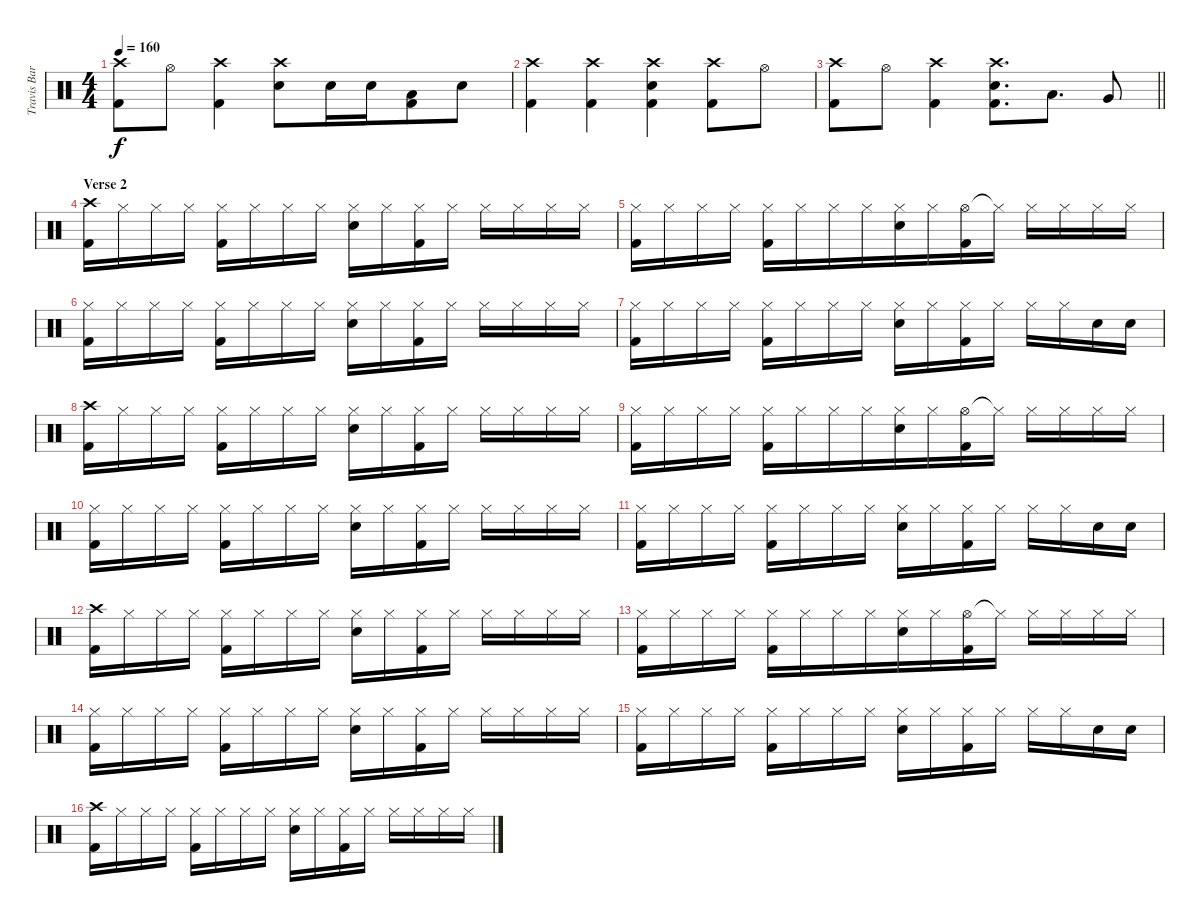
\track ("Travis Barker - Drums" "Travis Bar") {instrument percussion}
\staff {score}
\articulation defaults
\ts (4 4)
\tempo 160
\clef neutral
\ks c
("Crash high (hit)" "Kick (hit) 2").8{dy f} "Hi-Hat (open)".8{beam merge} ("Crash high (hit)" "Kick (hit) 2").4{beam merge} ("Crash high (hit)" "Electric Snare (hit)").8 "Electric Snare (hit)".16 "Electric Snare (hit)".16{beam merge} ("Low Tom (hit)" "Kick (hit) 2").8{beam merge} "Electric Snare (hit)".8 |
("Crash high (hit)" "Kick (hit) 2").4 ("Crash high (hit)" "Kick (hit) 2").4 ("Crash high (hit)" "Electric Snare (hit)" "Kick (hit) 2").4{beam merge} ("Crash high (hit)" "Kick (hit) 2").8{beam merge} "Hi-Hat (open)".8 |
\barLineRight lightlight
("Crash high (hit)" "Kick (hit) 2").8 "Hi-Hat (open)".8{beam merge} ("Crash high (hit)" "Kick (hit) 2").4{beam merge} ("Crash high (hit)" "Electric Snare (hit)" "Kick (hit) 2").8{d beam merge} "Low Tom (hit)".8{d} "Very Low Tom (hit)".8 |
\section ("" "Verse 2")
("Crash high (hit)" "Kick (hit) 2").16 "Hi-Hat (closed)".16{beam merge} "Hi-Hat (closed)".16 "Hi-Hat (closed)".16 ("Hi-Hat (closed)" "Kick (hit) 2").16{beam merge} "Hi-Hat (closed)".16 "Hi-Hat (closed)".16 "Hi-Hat (closed)".16 ("Hi-Hat (closed)" "Electric Snare (hit)").16 "Hi-Hat (closed)".16 ("Hi-Hat (closed)" "Kick (hit) 2").16 "Hi-Hat (closed)".16 "Hi-Hat (closed)".16{beam merge} "Hi-Hat (closed)".16 "Hi-Hat (closed)".16 "Hi-Hat (closed)".16 |
("Hi-Hat (closed)" "Kick (hit) 2").16 "Hi-Hat (closed)".16{beam merge} "Hi-Hat (closed)".16 "Hi-Hat (closed)".16 ("Hi-Hat (closed)" "Kick (hit) 2").16 "Hi-Hat (closed)".16{beam merge} "Hi-Hat (closed)".16 "Hi-Hat (closed)".16{beam merge} ("Hi-Hat (closed)" "Electric Snare (hit)").16{beam merge} "Hi-Hat (closed)".16 ("Hi-Hat (open)" "Kick (hit) 2").16{beam merge} "Hi-Hat (closed)"{t}.16 "Hi-Hat (closed)".16{beam merge} "Hi-Hat (closed)".16{beam merge} "Hi-Hat (closed)".16{beam merge} "Hi-Hat (closed)".16 |
("Hi-Hat (closed)" "Kick (hit) 2").16{beam merge} "Hi-Hat (closed)".16{beam merge} "Hi-Hat (closed)".16{beam merge} "Hi-Hat (closed)".16 ("Hi-Hat (closed)" "Kick (hit) 2").16 "Hi-Hat (closed)".16{beam merge} "Hi-Hat (closed)".16{beam merge} "Hi-Hat (closed)".16 ("Hi-Hat (closed)" "Electric Snare (hit)").16 "Hi-Hat (closed)".16 ("Hi-Hat (closed)" "Kick (hit) 2").16 "Hi-Hat (closed)".16 "Hi-Hat (closed)".16{beam merge} "Hi-Hat (closed)".16 "Hi-Hat (closed)".16 "Hi-Hat (closed)".16 |
("Hi-Hat (closed)" "Kick (hit) 2").16 "Hi-Hat (closed)".16{beam merge} "Hi-Hat (closed)".16 "Hi-Hat (closed)".16 ("Hi-Hat (closed)" "Kick (hit) 2").16 "Hi-Hat (closed)".16{beam merge} "Hi-Hat (closed)".16 "Hi-Hat (closed)".16 ("Hi-Hat (closed)" "Electric Snare (hit)").16 "Hi-Hat (closed)".16 ("Hi-Hat (closed)" "Kick (hit) 2").16 "Hi-Hat (closed)".16 "Hi-Hat (closed)".16{beam merge} "Hi-Hat (closed)".16 "Electric Snare (hit)".16 "Electric Snare (hit)".16 |
("Crash high (hit)" "Kick (hit) 2").16 "Hi-Hat (closed)".16{beam merge} "Hi-Hat (closed)".16 "Hi-Hat (closed)".16 ("Hi-Hat (closed)" "Kick (hit) 2").16{beam merge} "Hi-Hat (closed)".16 "Hi-Hat (closed)".16 "Hi-Hat (closed)".16 ("Hi-Hat (closed)" "Electric Snare (hit)").16 "Hi-Hat (closed)".16 ("Hi-Hat (closed)" "Kick (hit) 2").16 "Hi-Hat (closed)".16 "Hi-Hat (closed)".16{beam merge} "Hi-Hat (closed)".16 "Hi-Hat (closed)".16 "Hi-Hat (closed)".16 |
("Hi-Hat (closed)" "Kick (hit) 2").16 "Hi-Hat (closed)".16{beam merge} "Hi-Hat (closed)".16 "Hi-Hat (closed)".16 ("Hi-Hat (closed)" "Kick (hit) 2").16 "Hi-Hat (closed)".16{beam merge} "Hi-Hat (closed)".16 "Hi-Hat (closed)".16{beam merge} ("Hi-Hat (closed)" "Electric Snare (hit)").16{beam merge} "Hi-Hat (closed)".16 ("Hi-Hat (open)" "Kick (hit) 2").16{beam merge} "Hi-Hat (closed)"{t}.16 "Hi-Hat (closed)".16{beam merge} "Hi-Hat (closed)".16{beam merge} "Hi-Hat (closed)".16{beam merge} "Hi-Hat (closed)".16 |
("Hi-Hat (closed)" "Kick (hit) 2").16{beam merge} "Hi-Hat (closed)".16{beam merge} "Hi-Hat (closed)".16{beam merge} "Hi-Hat (closed)".16 ("Hi-Hat (closed)" "Kick (hit) 2").16 "Hi-Hat (closed)".16{beam merge} "Hi-Hat (closed)".16{beam merge} "Hi-Hat (closed)".16 ("Hi-Hat (closed)" "Electric Snare (hit)").16 "Hi-Hat (closed)".16 ("Hi-Hat (closed)" "Kick (hit) 2").16 "Hi-Hat (closed)".16 "Hi-Hat (closed)".16{beam merge} "Hi-Hat (closed)".16 "Hi-Hat (closed)".16 "Hi-Hat (closed)".16 |
("Hi-Hat (closed)" "Kick (hit) 2").16 "Hi-Hat (closed)".16{beam merge} "Hi-Hat (closed)".16 "Hi-Hat (closed)".16 ("Hi-Hat (closed)" "Kick (hit) 2").16 "Hi-Hat (closed)".16{beam merge} "Hi-Hat (closed)".16 "Hi-Hat (closed)".16 ("Hi-Hat (closed)" "Electric Snare (hit)").16 "Hi-Hat (closed)".16 ("Hi-Hat (closed)" "Kick (hit) 2").16 "Hi-Hat (closed)".16 "Hi-Hat (closed)".16{beam merge} "Hi-Hat (closed)".16 "Electric Snare (hit)".16 "Electric Snare (hit)".16 |
("Crash high (hit)" "Kick (hit) 2").16 "Hi-Hat (closed)".16{beam merge} "Hi-Hat (closed)".16 "Hi-Hat (closed)".16 ("Hi-Hat (closed)" "Kick (hit) 2").16{beam merge} "Hi-Hat (closed)".16 "Hi-Hat (closed)".16 "Hi-Hat (closed)".16 ("Hi-Hat (closed)" "Electric Snare (hit)").16 "Hi-Hat (closed)".16 ("Hi-Hat (closed)" "Kick (hit) 2").16 "Hi-Hat (closed)".16 "Hi-Hat (closed)".16{beam merge} "Hi-Hat (closed)".16 "Hi-Hat (closed)".16 "Hi-Hat (closed)".16 |
("Hi-Hat (closed)" "Kick (hit) 2").16 "Hi-Hat (closed)".16{beam merge} "Hi-Hat (closed)".16 "Hi-Hat (closed)".16 ("Hi-Hat (closed)" "Kick (hit) 2").16 "Hi-Hat (closed)".16{beam merge} "Hi-Hat (closed)".16 "Hi-Hat (closed)".16{beam merge} ("Hi-Hat (closed)" "Electric Snare (hit)").16{beam merge} "Hi-Hat (closed)".16 ("Hi-Hat (open)" "Kick (hit) 2").16{beam merge} "Hi-Hat (closed)"{t}.16 "Hi-Hat (closed)".16{beam merge} "Hi-Hat (closed)".16{beam merge} "Hi-Hat (closed)".16{beam merge} "Hi-Hat (closed)".16 |
("Hi-Hat (closed)" "Kick (hit) 2").16{beam merge} "Hi-Hat (closed)".16{beam merge} "Hi-Hat (closed)".16{beam merge} "Hi-Hat (closed)".16 ("Hi-Hat (closed)" "Kick (hit) 2").16 "Hi-Hat (closed)".16{beam merge} "Hi-Hat (closed)".16{beam merge} "Hi-Hat (closed)".16 ("Hi-Hat (closed)" "Electric Snare (hit)").16 "Hi-Hat (closed)".16 ("Hi-Hat (closed)" "Kick (hit) 2").16 "Hi-Hat (closed)".16 "Hi-Hat (closed)".16{beam merge} "Hi-Hat (closed)".16 "Hi-Hat (closed)".16 "Hi-Hat (closed)".16 |
("Hi-Hat (closed)" "Kick (hit) 2").16 "Hi-Hat (closed)".16{beam merge} "Hi-Hat (closed)".16 "Hi-Hat (closed)".16 ("Hi-Hat (closed)" "Kick (hit) 2").16 "Hi-Hat (closed)".16{beam merge} "Hi-Hat (closed)".16 "Hi-Hat (closed)".16 ("Hi-Hat (closed)" "Electric Snare (hit)").16 "Hi-Hat (closed)".16 ("Hi-Hat (closed)" "Kick (hit) 2").16 "Hi-Hat (closed)".16 "Hi-Hat (closed)".16{beam merge} "Hi-Hat (closed)".16 "Electric Snare (hit)".16 "Electric Snare (hit)".16 |
("Crash high (hit)" "Kick (hit) 2").16 "Hi-Hat (closed)".16{beam merge} "Hi-Hat (closed)".16 "Hi-Hat (closed)".16 ("Hi-Hat (closed)" "Kick (hit) 2").16{beam merge} "Hi-Hat (closed)".16 "Hi-Hat (closed)".16 "Hi-Hat (closed)".16 ("Hi-Hat (closed)" "Electric Snare (hit)").16 "Hi-Hat (closed)".16 ("Hi-Hat (closed)" "Kick (hit) 2").16 "Hi-Hat (closed)".16 "Hi-Hat (closed)".16{beam merge} "Hi-Hat (closed)".16 "Hi-Hat (closed)".16 "Hi-Hat (closed)".16
